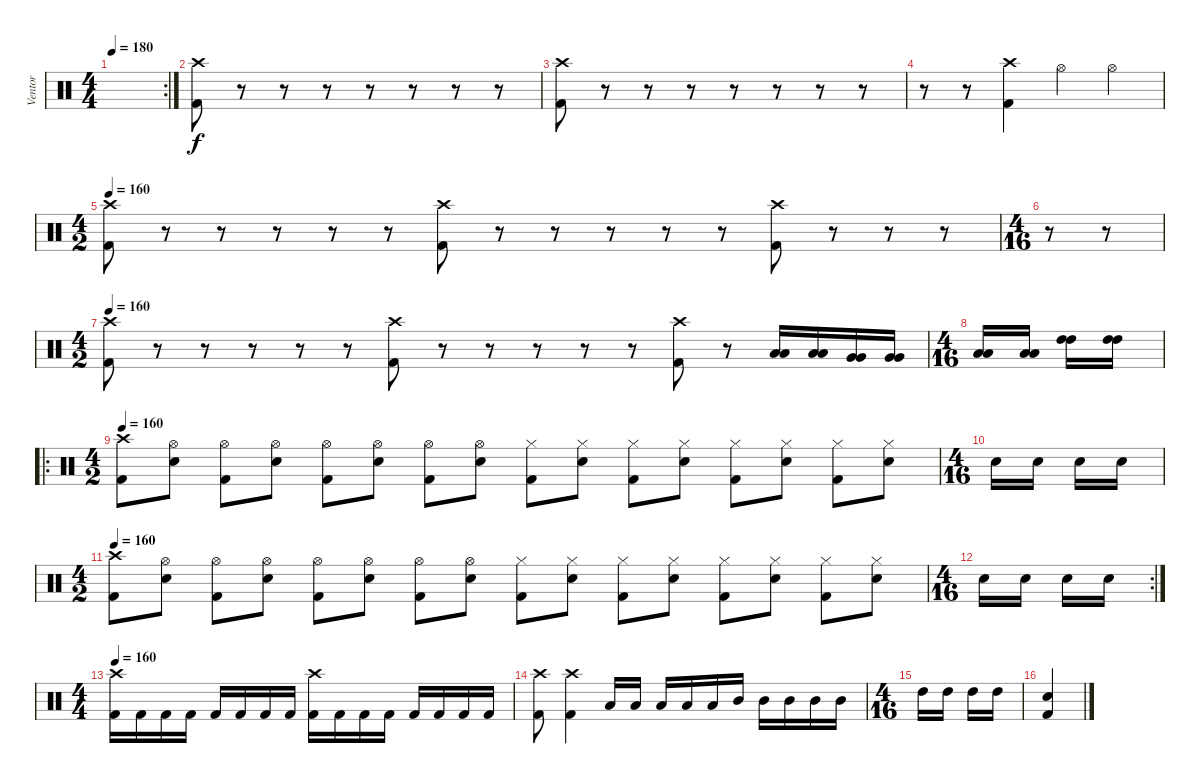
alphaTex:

\track ("Ventor" "Ventor") {instrument percussion}
\staff {score}
\articulation defaults
\rc 2
\ts (4 4)
\tempo 180
\clef neutral
\ks c
|
("Kick (hit) 2" "Crash high (hit)").8 r.8 r.8 r.8 r.8 r.8 r.8 r.8 |
("Kick (hit) 2" "Crash high (hit)").8 r.8 r.8 r.8 r.8 r.8 r.8 r.8 |
r.8 r.8 ("Kick (hit) 2" "Crash high (hit)").4 "Hi-Hat (open)".4 "Hi-Hat (open)".4 |
\ts (4 2)
\tempo 160
("Kick (hit) 2" "Crash high (hit)").8 r.8 r.8 r.8 r.8 r.8 ("Kick (hit) 2" "Crash high (hit)").8 r.8 r.8 r.8 r.8 r.8 ("Kick (hit) 2" "Crash high (hit)").8 r.8 r.8 r.8 |
\ts (4 16)
r.8 r.8 |
\ts (4 2)
\tempo 150
\tempo 160
("Kick (hit) 2" "Crash high (hit)").8 r.8 r.8 r.8 r.8 r.8 ("Kick (hit) 2" "Crash high (hit)").8 r.8 r.8 r.8 r.8 r.8 ("Kick (hit) 2" "Crash high (hit)").8 r.8 ("Low Floor Tom (hit)" "Low Floor Tom (hit)").16 ("Low Floor Tom (hit)" "Low Floor Tom (hit)").16 ("Very Low Tom (hit)" "Very Low Tom (hit)").16 ("Very Low Tom (hit)" "Very Low Tom (hit)").16 |
\ts (4 16)
("Low Tom (hit)" "Low Tom (hit)").16 ("Low Tom (hit)" "Low Tom (hit)").16 ("High Tom (hit)" "High Tom (hit)").16 ("High Tom (hit)" "High Tom (hit)").16 |
\ro
\ts (4 2)
\tempo 160
("Kick (hit) 2" "Crash high (hit)").8 ("Snare (hit) 2" "Hi-Hat (open)").8 ("Kick (hit) 2" "Hi-Hat (open)").8 ("Snare (hit) 2" "Hi-Hat (open)").8 ("Kick (hit) 2" "Hi-Hat (open)").8 ("Snare (hit) 2" "Hi-Hat (open)").8 ("Kick (hit) 2" "Hi-Hat (open)").8 ("Snare (hit) 2" "Hi-Hat (open)").8 ("Kick (hit) 2" "Hi-Hat (closed)").8 ("Snare (hit) 2" "Hi-Hat (closed)").8 ("Kick (hit) 2" "Hi-Hat (closed)").8 ("Snare (hit) 2" "Hi-Hat (closed)").8 ("Kick (hit) 2" "Hi-Hat (closed)").8 ("Snare (hit) 2" "Hi-Hat (closed)").8 ("Kick (hit) 2" "Hi-Hat (closed)").8 ("Snare (hit) 2" "Hi-Hat (closed)").8 |
\ts (4 16)
"Snare (hit) 2".16 "Snare (hit) 2".16 "Snare (hit) 2".16 "Snare (hit) 2".16 |
\ts (4 2)
\tempo 150
\tempo 160
("Kick (hit) 2" "Crash high (hit)").8 ("Snare (hit) 2" "Hi-Hat (open)").8 ("Kick (hit) 2" "Hi-Hat (open)").8 ("Snare (hit) 2" "Hi-Hat (open)").8 ("Kick (hit) 2" "Hi-Hat (open)").8 ("Snare (hit) 2" "Hi-Hat (open)").8 ("Kick (hit) 2" "Hi-Hat (open)").8 ("Snare (hit) 2" "Hi-Hat (open)").8 ("Kick (hit) 2" "Hi-Hat (closed)").8 ("Snare (hit) 2" "Hi-Hat (closed)").8 ("Kick (hit) 2" "Hi-Hat (closed)").8 ("Snare (hit) 2" "Hi-Hat (closed)").8 ("Kick (hit) 2" "Hi-Hat (closed)").8 ("Snare (hit) 2" "Hi-Hat (closed)").8 ("Kick (hit) 2" "Hi-Hat (closed)").8 ("Snare (hit) 2" "Hi-Hat (closed)").8 |
\rc 2
\ts (4 16)
"Snare (hit) 2".16 "Snare (hit) 2".16 "Snare (hit) 2".16 "Snare (hit) 2".16 |
\ts (4 4)
\tempo 160
("Kick (hit) 2" "Crash high (hit)").16 "Kick (hit) 2".16 "Kick (hit) 2".16 "Kick (hit) 2".16 "Kick (hit) 2".16 "Kick (hit) 2".16 "Kick (hit) 2".16 "Kick (hit) 2".16 ("Kick (hit) 2" "Crash high (hit)").16 "Kick (hit) 2".16 "Kick (hit) 2".16 "Kick (hit) 2".16 "Kick (hit) 2".16 "Kick (hit) 2".16 "Kick (hit) 2".16 "Kick (hit) 2".16 |
("Kick (hit) 2" "Crash high (hit)").8 ("Kick (hit) 2" "Crash high (hit)").4 "Low Tom (hit)".16 "Low Tom (hit)".16 "Low Tom (hit)".16 "Low Tom (hit)".16 "Low Tom (hit)".16 "Mid Tom (hit)".16 "Mid Tom (hit)".16 "Mid Tom (hit)".16 "Mid Tom (hit)".16 "Mid Tom (hit)".16 |
\ts (4 16)
"High Tom (hit)".16 "High Tom (hit)".16 "High Tom (hit)".16 "High Tom (hit)".16 |
("Kick (hit) 2" "Snare (hit) 2").4
